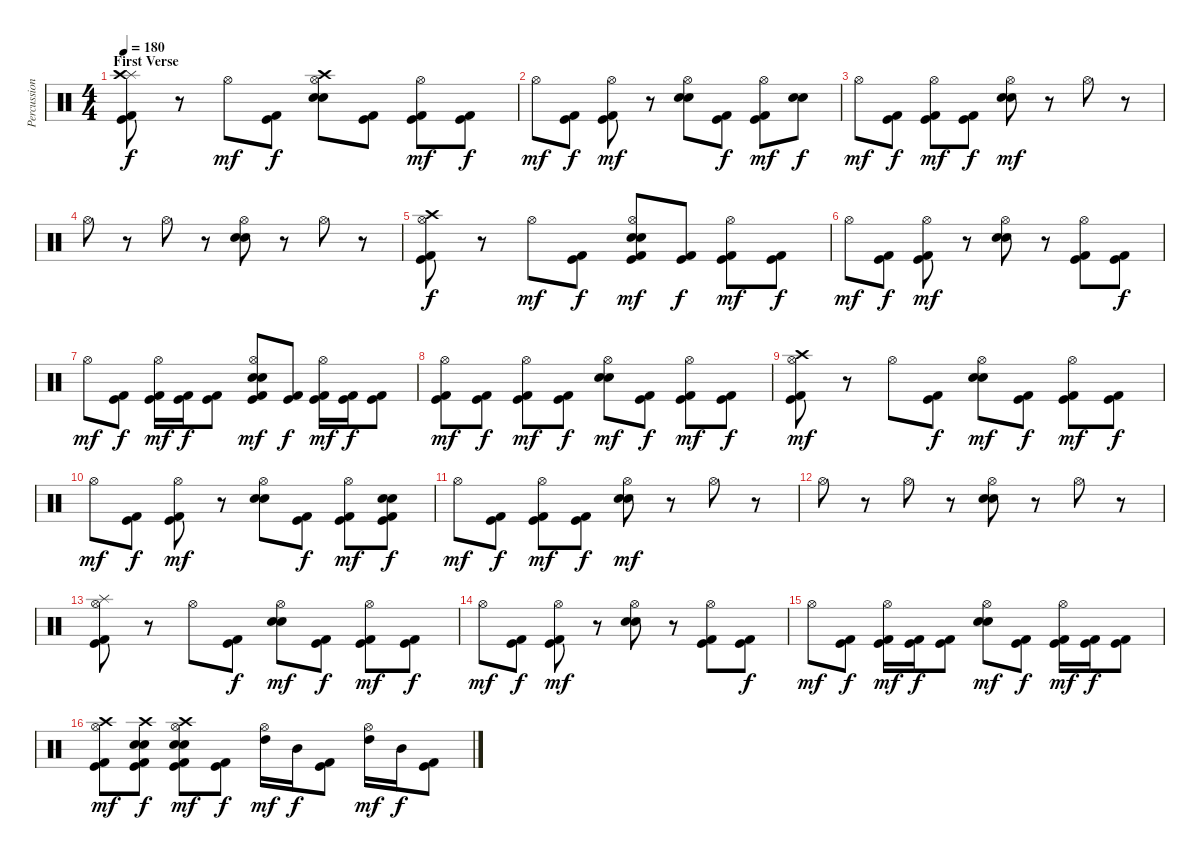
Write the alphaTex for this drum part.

\track ("Percussion" "Percussion") {instrument percussion}
\staff {score}
\articulation defaults
\ts (4 4)
\section ("" "First Verse")
\tempo 180
\clef neutral
\ks c
("Splash (hit)" "Crash high (hit)" "Kick (hit) 2" "Kick (hit)").8{dy f} r.8 "Hi-Hat (open)".8{dy mf} ("Kick (hit) 2" "Kick (hit)").8{dy f} ("Crash high (hit)" "Hi-Hat (open)" "Electric Snare (hit)" "Electric Snare (hit)").8 ("Kick (hit) 2" "Kick (hit)").8 ("Hi-Hat (open)" "Kick (hit) 2" "Kick (hit)").8{dy mf} ("Kick (hit) 2" "Kick (hit)").8{dy f} |
"Hi-Hat (open)".8{dy mf} ("Kick (hit) 2" "Kick (hit)").8{dy f} ("Hi-Hat (open)" "Kick (hit) 2" "Kick (hit)").8{dy mf} r.8 ("Hi-Hat (open)" "Electric Snare (hit)" "Electric Snare (hit)").8 ("Kick (hit) 2" "Kick (hit)").8{dy f} ("Hi-Hat (open)" "Kick (hit) 2" "Kick (hit)").8{dy mf} ("Electric Snare (hit)" "Electric Snare (hit)").8{dy f} |
"Hi-Hat (open)".8{dy mf} ("Kick (hit) 2" "Kick (hit)").8{dy f} ("Hi-Hat (open)" "Kick (hit) 2" "Kick (hit)").8{dy mf} ("Kick (hit) 2" "Kick (hit)").8{dy f} ("Hi-Hat (open)" "Electric Snare (hit)" "Electric Snare (hit)").8{dy mf} r.8 "Hi-Hat (open)".8 r.8 |
"Hi-Hat (open)".8 r.8 "Hi-Hat (open)".8 r.8 ("Hi-Hat (open)" "Electric Snare (hit)" "Electric Snare (hit)").8 r.8 "Hi-Hat (open)".8 r.8 |
("Crash high (hit)" "Hi-Hat (open)" "Kick (hit) 2" "Kick (hit)").8{dy f} r.8 "Hi-Hat (open)".8{dy mf} ("Kick (hit) 2" "Kick (hit)").8{dy f} ("Hi-Hat (open)" "Electric Snare (hit)" "Electric Snare (hit)" "Kick (hit) 2" "Kick (hit)").8{dy mf} ("Kick (hit) 2" "Kick (hit)").8{dy f} ("Hi-Hat (open)" "Kick (hit) 2" "Kick (hit)").8{dy mf} ("Kick (hit) 2" "Kick (hit)").8{dy f} |
"Hi-Hat (open)".8{dy mf} ("Kick (hit) 2" "Kick (hit)").8{dy f} ("Hi-Hat (open)" "Kick (hit) 2" "Kick (hit)").8{dy mf} r.8 ("Hi-Hat (open)" "Electric Snare (hit)" "Electric Snare (hit)").8 r.8 ("Hi-Hat (open)" "Kick (hit) 2" "Kick (hit)").8 ("Kick (hit) 2" "Kick (hit)").8{dy f} |
"Hi-Hat (open)".8{dy mf} ("Kick (hit) 2" "Kick (hit)").8{dy f} ("Hi-Hat (open)" "Kick (hit) 2" "Kick (hit)").16{dy mf} ("Kick (hit) 2" "Kick (hit)").16{dy f} ("Kick (hit) 2" "Kick (hit)").8 ("Hi-Hat (open)" "Electric Snare (hit)" "Electric Snare (hit)" "Kick (hit) 2" "Kick (hit)").8{dy mf} ("Kick (hit) 2" "Kick (hit)").8{dy f} ("Hi-Hat (open)" "Kick (hit) 2" "Kick (hit)").16{dy mf} ("Kick (hit) 2" "Kick (hit)").16{dy f} ("Kick (hit) 2" "Kick (hit)").8 |
("Hi-Hat (open)" "Kick (hit) 2" "Kick (hit)").8{dy mf} ("Kick (hit) 2" "Kick (hit)").8{dy f} ("Hi-Hat (open)" "Kick (hit) 2" "Kick (hit)").8{dy mf} ("Kick (hit) 2" "Kick (hit)").8{dy f} ("Hi-Hat (open)" "Electric Snare (hit)" "Electric Snare (hit)").8{dy mf} ("Kick (hit) 2" "Kick (hit)").8{dy f} ("Hi-Hat (open)" "Kick (hit) 2" "Kick (hit)").8{dy mf} ("Kick (hit) 2" "Kick (hit)").8{dy f} |
("Crash high (hit)" "Hi-Hat (open)" "Kick (hit) 2" "Kick (hit)").8{dy mf} r.8 "Hi-Hat (open)".8 ("Kick (hit) 2" "Kick (hit)").8{dy f} ("Hi-Hat (open)" "Electric Snare (hit)" "Electric Snare (hit)").8{dy mf} ("Kick (hit) 2" "Kick (hit)").8{dy f} ("Hi-Hat (open)" "Kick (hit) 2" "Kick (hit)").8{dy mf} ("Kick (hit) 2" "Kick (hit)").8{dy f} |
"Hi-Hat (open)".8{dy mf} ("Kick (hit) 2" "Kick (hit)").8{dy f} ("Hi-Hat (open)" "Kick (hit) 2" "Kick (hit)").8{dy mf} r.8 ("Hi-Hat (open)" "Electric Snare (hit)" "Electric Snare (hit)").8 ("Kick (hit) 2" "Kick (hit)").8{dy f} ("Hi-Hat (open)" "Kick (hit) 2" "Kick (hit)").8{dy mf} ("Electric Snare (hit)" "Electric Snare (hit)" "Kick (hit) 2" "Kick (hit)").8{dy f} |
"Hi-Hat (open)".8{dy mf} ("Kick (hit) 2" "Kick (hit)").8{dy f} ("Hi-Hat (open)" "Kick (hit) 2" "Kick (hit)").8{dy mf} ("Kick (hit) 2" "Kick (hit)").8{dy f} ("Hi-Hat (open)" "Electric Snare (hit)" "Electric Snare (hit)").8{dy mf} r.8 "Hi-Hat (open)".8 r.8 |
"Hi-Hat (open)".8 r.8 "Hi-Hat (open)".8 r.8 ("Hi-Hat (open)" "Electric Snare (hit)" "Electric Snare (hit)").8 r.8 "Hi-Hat (open)".8 r.8 |
("Splash (hit)" "Hi-Hat (open)" "Kick (hit) 2" "Kick (hit)").8 r.8 "Hi-Hat (open)".8 ("Kick (hit) 2" "Kick (hit)").8{dy f} ("Hi-Hat (open)" "Electric Snare (hit)" "Electric Snare (hit)").8{dy mf} ("Kick (hit) 2" "Kick (hit)").8{dy f} ("Hi-Hat (open)" "Kick (hit) 2" "Kick (hit)").8{dy mf} ("Kick (hit) 2" "Kick (hit)").8{dy f} |
"Hi-Hat (open)".8{dy mf} ("Kick (hit) 2" "Kick (hit)").8{dy f} ("Hi-Hat (open)" "Kick (hit) 2" "Kick (hit)").8{dy mf} r.8 ("Hi-Hat (open)" "Electric Snare (hit)" "Electric Snare (hit)").8 r.8 ("Hi-Hat (open)" "Kick (hit) 2" "Kick (hit)").8 ("Kick (hit) 2" "Kick (hit)").8{dy f} |
"Hi-Hat (open)".8{dy mf} ("Kick (hit) 2" "Kick (hit)").8{dy f} ("Hi-Hat (open)" "Kick (hit) 2" "Kick (hit)").16{dy mf} ("Kick (hit) 2" "Kick (hit)").16{dy f} ("Kick (hit) 2" "Kick (hit)").8 ("Hi-Hat (open)" "Electric Snare (hit)" "Electric Snare (hit)").8{dy mf} ("Kick (hit) 2" "Kick (hit)").8{dy f} ("Hi-Hat (open)" "Kick (hit) 2" "Kick (hit)").16{dy mf} ("Kick (hit) 2" "Kick (hit)").16{dy f} ("Kick (hit) 2" "Kick (hit)").8 |
("Crash high (hit)" "Hi-Hat (open)" "Kick (hit) 2" "Kick (hit)").8{dy mf} ("Crash high (hit)" "Electric Snare (hit)" "Electric Snare (hit)" "Kick (hit) 2" "Kick (hit)").8{dy f} ("Crash high (hit)" "Hi-Hat (open)" "Electric Snare (hit)" "Electric Snare (hit)" "Kick (hit) 2" "Kick (hit)").8{dy mf} ("Kick (hit) 2" "Kick (hit)").8{dy f} ("Hi-Hat (open)" "High Tom (hit)").16{dy mf} "Mid Tom (hit)".16{dy f} ("Kick (hit) 2" "Kick (hit)").8 ("Hi-Hat (open)" "High Tom (hit)").16{dy mf} "Mid Tom (hit)".16{dy f} ("Kick (hit) 2" "Kick (hit)").8
